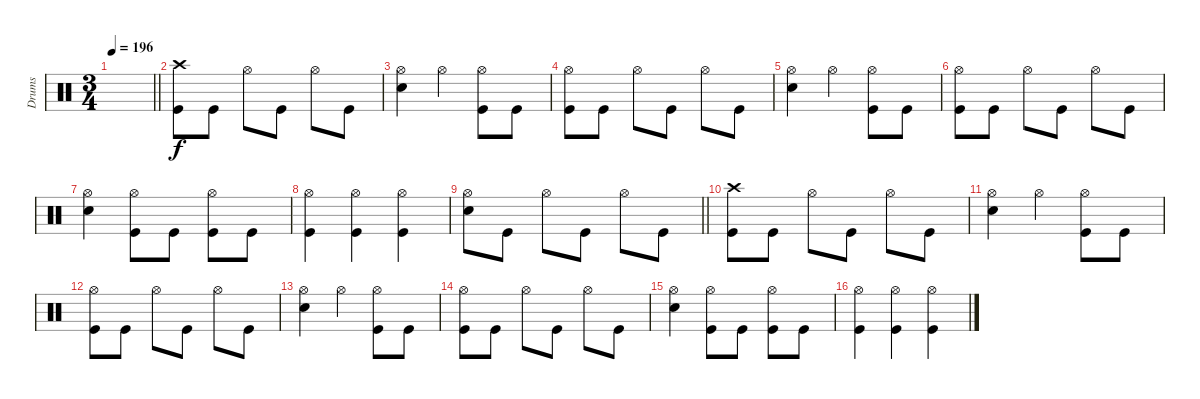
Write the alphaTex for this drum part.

\track ("Drums" "Drums") {instrument percussion}
\staff
\articulation defaults
\ts (3 4)
\tempo 196
\clef neutral
\barLineRight lightlight
\ks c
|
\section ("" "")
("Crash high (hit)" "Kick (hit)").8 "Kick (hit)".8 "Hi-Hat (open)".8 "Kick (hit)".8 "Hi-Hat (open)".8 "Kick (hit)".8 |
("Hi-Hat (open)" "Electric Snare (hit)").4 "Hi-Hat (open)".4 ("Hi-Hat (open)" "Kick (hit)").8 "Kick (hit)".8 |
("Hi-Hat (open)" "Kick (hit)").8 "Kick (hit)".8 "Hi-Hat (open)".8 "Kick (hit)".8 "Hi-Hat (open)".8 "Kick (hit)".8 |
("Hi-Hat (open)" "Electric Snare (hit)").4 "Hi-Hat (open)".4 ("Hi-Hat (open)" "Kick (hit)").8 "Kick (hit)".8 |
("Hi-Hat (open)" "Kick (hit)").8 "Kick (hit)".8 "Hi-Hat (open)".8 "Kick (hit)".8 "Hi-Hat (open)".8 "Kick (hit)".8 |
("Hi-Hat (open)" "Electric Snare (hit)").4 ("Hi-Hat (open)" "Kick (hit)").8 "Kick (hit)".8 ("Hi-Hat (open)" "Kick (hit)").8 "Kick (hit)".8 |
("Hi-Hat (open)" "Kick (hit)").4 ("Hi-Hat (open)" "Kick (hit)").4 ("Hi-Hat (open)" "Kick (hit)").4 |
\barLineRight lightlight
("Hi-Hat (open)" "Electric Snare (hit)").8 "Kick (hit)".8 "Hi-Hat (open)".8 "Kick (hit)".8 "Hi-Hat (open)".8 "Kick (hit)".8 |
("Crash high (hit)" "Kick (hit)").8 "Kick (hit)".8 "Hi-Hat (open)".8 "Kick (hit)".8 "Hi-Hat (open)".8 "Kick (hit)".8 |
("Hi-Hat (open)" "Electric Snare (hit)").4 "Hi-Hat (open)".4 ("Hi-Hat (open)" "Kick (hit)").8 "Kick (hit)".8 |
("Hi-Hat (open)" "Kick (hit)").8 "Kick (hit)".8 "Hi-Hat (open)".8 "Kick (hit)".8 "Hi-Hat (open)".8 "Kick (hit)".8 |
("Hi-Hat (open)" "Electric Snare (hit)").4 "Hi-Hat (open)".4 ("Hi-Hat (open)" "Kick (hit)").8 "Kick (hit)".8 |
("Hi-Hat (open)" "Kick (hit)").8 "Kick (hit)".8 "Hi-Hat (open)".8 "Kick (hit)".8 "Hi-Hat (open)".8 "Kick (hit)".8 |
("Hi-Hat (open)" "Electric Snare (hit)").4 ("Hi-Hat (open)" "Kick (hit)").8 "Kick (hit)".8 ("Hi-Hat (open)" "Kick (hit)").8 "Kick (hit)".8 |
("Hi-Hat (open)" "Kick (hit)").4 ("Hi-Hat (open)" "Kick (hit)").4 ("Hi-Hat (open)" "Kick (hit)").4
